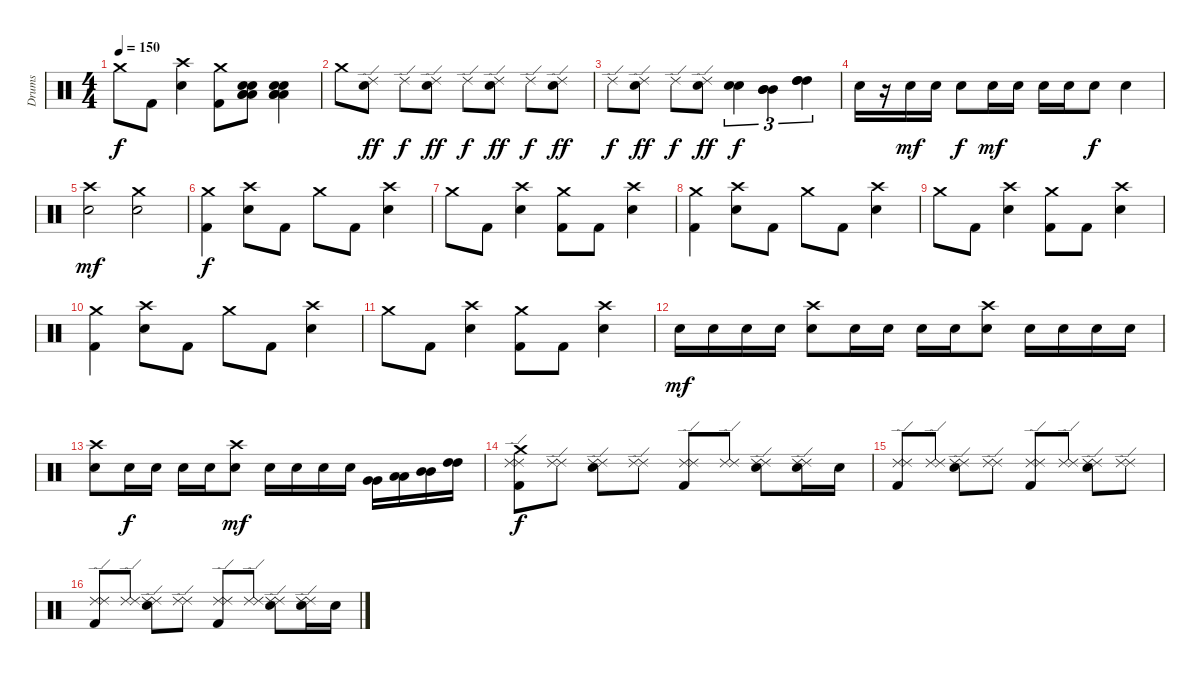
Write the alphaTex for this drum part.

\track ("Drums" "Drums") {instrument percussion}
\staff {score}
\articulation defaults
\ts (4 4)
\tempo 150
\clef neutral
\ks c "Crash medium (hit)".8{dy f} "Kick (hit) 2".8
("Crash high (hit)" "Snare (hit) 2").4 ("Crash medium (hit)" "Kick (hit) 2").8 ("Electric Snare (hit)" "Snare (hit) 2" "Low Tom (hit)" "Low Tom (hit)" "Low Tom (hit)").8 ("Electric Snare (hit)" "Snare (hit) 2" "Low Tom (hit)" "Low Tom (hit)" "Low Tom (hit)").4 |
"Crash medium (hit)".8 ("Ride (edge) 2" "Snare (hit) 2").8{dy ff} "Ride (edge) 2".8{dy f} ("Ride (edge) 2" "Snare (hit) 2").8{dy ff} "Ride (edge) 2".8{dy f} ("Ride (edge) 2" "Snare (hit) 2").8{dy ff} "Ride (edge) 2".8{dy f} ("Ride (edge) 2" "Snare (hit) 2").8{dy ff} |
"Ride (edge) 2".8{dy f} ("Ride (edge) 2" "Snare (hit) 2").8{dy ff} "Ride (edge) 2".8{dy f} ("Ride (edge) 2" "Snare (hit) 2").8{dy ff} ("Snare (hit) 2" "Electric Snare (hit)").4{tu (3 2) dy f} ("Mid Tom (hit)" "Mid Tom (hit)" "Mid Tom (hit)").4{tu (3 2)} ("High Tom (hit)" "High Tom (hit)" "High Tom (hit)").4{tu (3 2)} |
"Snare (hit) 2".16 r.16 "Electric Snare (hit)".16{dy mf} "Electric Snare (hit)".16 "Snare (hit) 2".8{dy f} "Electric Snare (hit)".16{dy mf} "Electric Snare (hit)".16 "Electric Snare (hit)".16 "Electric Snare (hit)".16 "Snare (hit) 2".8{dy f} "Snare (hit) 2".4 |
("Crash high (hit)" "Snare (hit) 2").2{dy mf} ("Crash medium (hit)" "Snare (hit) 2").2 |
("Crash medium (hit)" "Kick (hit) 2").4{dy f} ("Crash high (hit)" "Snare (hit) 2").8 "Kick (hit) 2".8 "Crash medium (hit)".8 "Kick (hit) 2".8 ("Crash high (hit)" "Snare (hit) 2").4 |
"Crash medium (hit)".8 "Kick (hit) 2".8 ("Crash high (hit)" "Snare (hit) 2").4 ("Crash medium (hit)" "Kick (hit) 2").8 "Kick (hit) 2".8 ("Crash high (hit)" "Snare (hit) 2").4 |
("Crash medium (hit)" "Kick (hit) 2").4 ("Crash high (hit)" "Snare (hit) 2").8 "Kick (hit) 2".8 "Crash medium (hit)".8 "Kick (hit) 2".8 ("Crash high (hit)" "Snare (hit) 2").4 |
"Crash medium (hit)".8 "Kick (hit) 2".8 ("Crash high (hit)" "Snare (hit) 2").4 ("Crash medium (hit)" "Kick (hit) 2").8 "Kick (hit) 2".8 ("Crash high (hit)" "Snare (hit) 2").4 |
("Crash medium (hit)" "Kick (hit) 2").4 ("Crash high (hit)" "Snare (hit) 2").8 "Kick (hit) 2".8 "Crash medium (hit)".8 "Kick (hit) 2".8 ("Crash high (hit)" "Snare (hit) 2").4 |
"Crash medium (hit)".8 "Kick (hit) 2".8 ("Crash high (hit)" "Snare (hit) 2").4 ("Crash medium (hit)" "Kick (hit) 2").8 "Kick (hit) 2".8 ("Crash high (hit)" "Snare (hit) 2").4 |
"Snare (hit) 2".16{dy mf} "Snare (hit) 2".16 "Snare (hit) 2".16 "Snare (hit) 2".16 ("Crash high (hit)" "Snare (hit) 2").8 "Snare (hit) 2".16 "Snare (hit) 2".16 "Snare (hit) 2".16 "Snare (hit) 2".16 ("Crash high (hit)" "Snare (hit) 2").8 "Snare (hit) 2".16 "Snare (hit) 2".16 "Snare (hit) 2".16 "Snare (hit) 2".16 |
("Crash high (hit)" "Snare (hit) 2").8 "Snare (hit) 2".16{dy f} "Snare (hit) 2".16 "Snare (hit) 2".16 "Snare (hit) 2".16 ("Crash high (hit)" "Snare (hit) 2").8{dy mf} "Snare (hit) 2".16 "Snare (hit) 2".16 "Snare (hit) 2".16 "Snare (hit) 2".16 ("Very Low Tom (hit)" "Very Low Tom (hit)").16 ("Low Tom (hit)" "Low Tom (hit)").16 ("Mid Tom (hit)" "Mid Tom (hit)").16 ("High Tom (hit)" "High Tom (hit)").16 |
("Crash medium (hit)" "Kick (hit) 2" "Ride (edge) 2" "Ride (edge) 2").8{dy f} ("Ride (edge) 2" "Ride (edge) 2").8 ("Snare (hit) 2" "Ride (edge) 2" "Ride (edge) 2").8 ("Ride (edge) 2" "Ride (edge) 2").8 ("Kick (hit) 2" "Ride (edge) 2" "Ride (edge) 2").8 ("Ride (edge) 2" "Ride (edge) 2").8 ("Snare (hit) 2" "Ride (edge) 2" "Ride (edge) 2").8 ("Snare (hit) 2" "Ride (edge) 2" "Ride (edge) 2").16 "Snare (hit) 2".16 |
("Kick (hit) 2" "Ride (edge) 2" "Ride (edge) 2").8 ("Ride (edge) 2" "Ride (edge) 2").8 ("Snare (hit) 2" "Ride (edge) 2" "Ride (edge) 2").8 ("Ride (edge) 2" "Ride (edge) 2").8 ("Kick (hit) 2" "Ride (edge) 2" "Ride (edge) 2").8 ("Ride (edge) 2" "Ride (edge) 2").8 ("Snare (hit) 2" "Ride (edge) 2" "Ride (edge) 2").8 ("Ride (edge) 2" "Ride (edge) 2").8 |
("Kick (hit) 2" "Ride (edge) 2" "Ride (edge) 2").8 ("Ride (edge) 2" "Ride (edge) 2").8 ("Snare (hit) 2" "Ride (edge) 2" "Ride (edge) 2").8 ("Ride (edge) 2" "Ride (edge) 2").8 ("Kick (hit) 2" "Ride (edge) 2" "Ride (edge) 2").8 ("Ride (edge) 2" "Ride (edge) 2").8 ("Snare (hit) 2" "Ride (edge) 2" "Ride (edge) 2").8 ("Snare (hit) 2" "Ride (edge) 2" "Ride (edge) 2").16 "Snare (hit) 2".16
